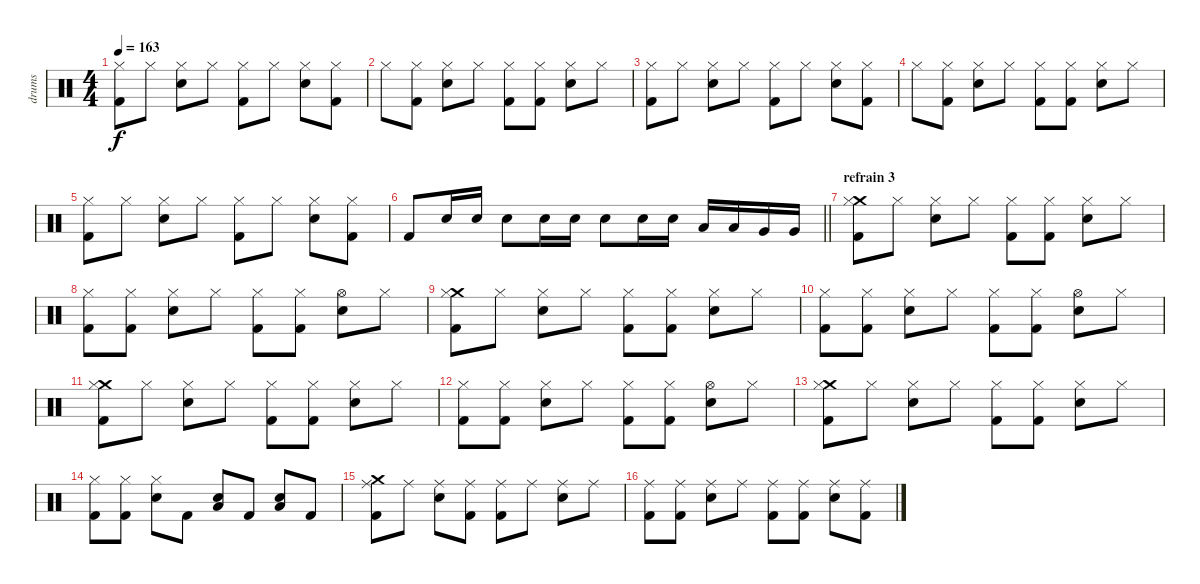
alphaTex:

\track ("drums" "drums") {instrument percussion}
\staff {score}
\articulation defaults
\ts (4 4)
\tempo 163
\clef neutral
\ks c
("Hi-Hat (closed)" "Kick (hit) 2").8{dy f} "Hi-Hat (closed)".8 ("Hi-Hat (closed)" "Electric Snare (hit)").8 "Hi-Hat (closed)".8 ("Hi-Hat (closed)" "Kick (hit) 2").8 "Hi-Hat (closed)".8 ("Hi-Hat (closed)" "Electric Snare (hit)").8 ("Hi-Hat (closed)" "Kick (hit) 2").8 |
"Hi-Hat (closed)".8 ("Hi-Hat (closed)" "Kick (hit) 2").8 ("Hi-Hat (closed)" "Electric Snare (hit)").8 "Hi-Hat (closed)".8 ("Hi-Hat (closed)" "Kick (hit) 2").8 ("Hi-Hat (closed)" "Kick (hit) 2").8 ("Hi-Hat (closed)" "Electric Snare (hit)").8 "Hi-Hat (closed)".8 |
("Hi-Hat (closed)" "Kick (hit) 2").8 "Hi-Hat (closed)".8 ("Hi-Hat (closed)" "Electric Snare (hit)").8 "Hi-Hat (closed)".8 ("Hi-Hat (closed)" "Kick (hit) 2").8 "Hi-Hat (closed)".8 ("Hi-Hat (closed)" "Electric Snare (hit)").8 ("Hi-Hat (closed)" "Kick (hit) 2").8 |
"Hi-Hat (closed)".8 ("Hi-Hat (closed)" "Kick (hit) 2").8 ("Hi-Hat (closed)" "Electric Snare (hit)").8 "Hi-Hat (closed)".8 ("Hi-Hat (closed)" "Kick (hit) 2").8 ("Hi-Hat (closed)" "Kick (hit) 2").8 ("Hi-Hat (closed)" "Electric Snare (hit)").8 "Hi-Hat (closed)".8 |
("Hi-Hat (closed)" "Kick (hit) 2").8 "Hi-Hat (closed)".8 ("Hi-Hat (closed)" "Electric Snare (hit)").8 "Hi-Hat (closed)".8 ("Hi-Hat (closed)" "Kick (hit) 2").8 "Hi-Hat (closed)".8 ("Hi-Hat (closed)" "Electric Snare (hit)").8 ("Hi-Hat (closed)" "Kick (hit) 2").8 |
\barLineRight lightlight "Kick (hit) 2".8 "Electric Snare (hit)".16 "Electric Snare (hit)".16 "Electric Snare (hit)".8 "Electric Snare (hit)".16 "Electric Snare (hit)".16 "Electric Snare (hit)".8 "Electric Snare (hit)".16 "Electric Snare (hit)".16 "Low Tom (hit)".16 "Low Tom (hit)".16 "Very Low Tom (hit)".16 "Very Low Tom (hit)".16
|
\section ("" "refrain 3")
("Crash medium (hit)" "Hi-Hat (closed)" "Kick (hit) 2").8 "Hi-Hat (closed)".8 ("Hi-Hat (closed)" "Electric Snare (hit)").8 "Hi-Hat (closed)".8 ("Hi-Hat (closed)" "Kick (hit) 2").8 ("Hi-Hat (closed)" "Kick (hit) 2").8 ("Hi-Hat (closed)" "Electric Snare (hit)").8 "Hi-Hat (closed)".8 |
("Hi-Hat (closed)" "Kick (hit) 2").8 ("Hi-Hat (closed)" "Kick (hit) 2").8 ("Hi-Hat (closed)" "Electric Snare (hit)").8 "Hi-Hat (closed)".8 ("Hi-Hat (closed)" "Kick (hit) 2").8 ("Hi-Hat (closed)" "Kick (hit) 2").8 ("Hi-Hat (open)" "Electric Snare (hit)").8 "Hi-Hat (closed)".8 |
("Crash medium (hit)" "Hi-Hat (closed)" "Kick (hit) 2").8 "Hi-Hat (closed)".8 ("Hi-Hat (closed)" "Electric Snare (hit)").8 "Hi-Hat (closed)".8 ("Hi-Hat (closed)" "Kick (hit) 2").8 ("Hi-Hat (closed)" "Kick (hit) 2").8 ("Hi-Hat (closed)" "Electric Snare (hit)").8 "Hi-Hat (closed)".8 |
("Hi-Hat (closed)" "Kick (hit) 2").8 ("Hi-Hat (closed)" "Kick (hit) 2").8 ("Hi-Hat (closed)" "Electric Snare (hit)").8 "Hi-Hat (closed)".8 ("Hi-Hat (closed)" "Kick (hit) 2").8 ("Hi-Hat (closed)" "Kick (hit) 2").8 ("Hi-Hat (open)" "Electric Snare (hit)").8 "Hi-Hat (closed)".8 |
("Crash medium (hit)" "Hi-Hat (closed)" "Kick (hit) 2").8 "Hi-Hat (closed)".8 ("Hi-Hat (closed)" "Electric Snare (hit)").8 "Hi-Hat (closed)".8 ("Hi-Hat (closed)" "Kick (hit) 2").8 ("Hi-Hat (closed)" "Kick (hit) 2").8 ("Hi-Hat (closed)" "Electric Snare (hit)").8 "Hi-Hat (closed)".8 |
("Hi-Hat (closed)" "Kick (hit) 2").8 ("Hi-Hat (closed)" "Kick (hit) 2").8 ("Hi-Hat (closed)" "Electric Snare (hit)").8 "Hi-Hat (closed)".8 ("Hi-Hat (closed)" "Kick (hit) 2").8 ("Hi-Hat (closed)" "Kick (hit) 2").8 ("Hi-Hat (open)" "Electric Snare (hit)").8 "Hi-Hat (closed)".8 |
("Crash medium (hit)" "Hi-Hat (closed)" "Kick (hit) 2").8 "Hi-Hat (closed)".8 ("Hi-Hat (closed)" "Electric Snare (hit)").8 "Hi-Hat (closed)".8 ("Hi-Hat (closed)" "Kick (hit) 2").8 ("Hi-Hat (closed)" "Kick (hit) 2").8 ("Hi-Hat (closed)" "Electric Snare (hit)").8 "Hi-Hat (closed)".8 |
("Hi-Hat (closed)" "Kick (hit) 2").8 ("Hi-Hat (closed)" "Kick (hit) 2").8 ("Hi-Hat (closed)" "Electric Snare (hit)").8 "Kick (hit) 2".8 ("Low Tom (hit)" "Electric Snare (hit)").8 "Kick (hit) 2".8 ("Low Tom (hit)" "Electric Snare (hit)").8 "Kick (hit) 2".8 |
("Crash medium (hit)" "Ride (middle)" "Kick (hit) 2").8 "Ride (middle)".8 ("Ride (middle)" "Electric Snare (hit)").8 ("Ride (middle)" "Kick (hit) 2").8 ("Ride (middle)" "Kick (hit) 2").8 "Ride (middle)".8 ("Ride (middle)" "Electric Snare (hit)").8 "Ride (middle)".8 |
("Ride (middle)" "Kick (hit) 2").8 ("Ride (middle)" "Kick (hit) 2").8 ("Ride (middle)" "Electric Snare (hit)").8 "Ride (middle)".8 ("Ride (middle)" "Kick (hit) 2").8 ("Ride (middle)" "Kick (hit) 2").8 ("Ride (middle)" "Electric Snare (hit)").8 ("Ride (middle)" "Kick (hit) 2").8
